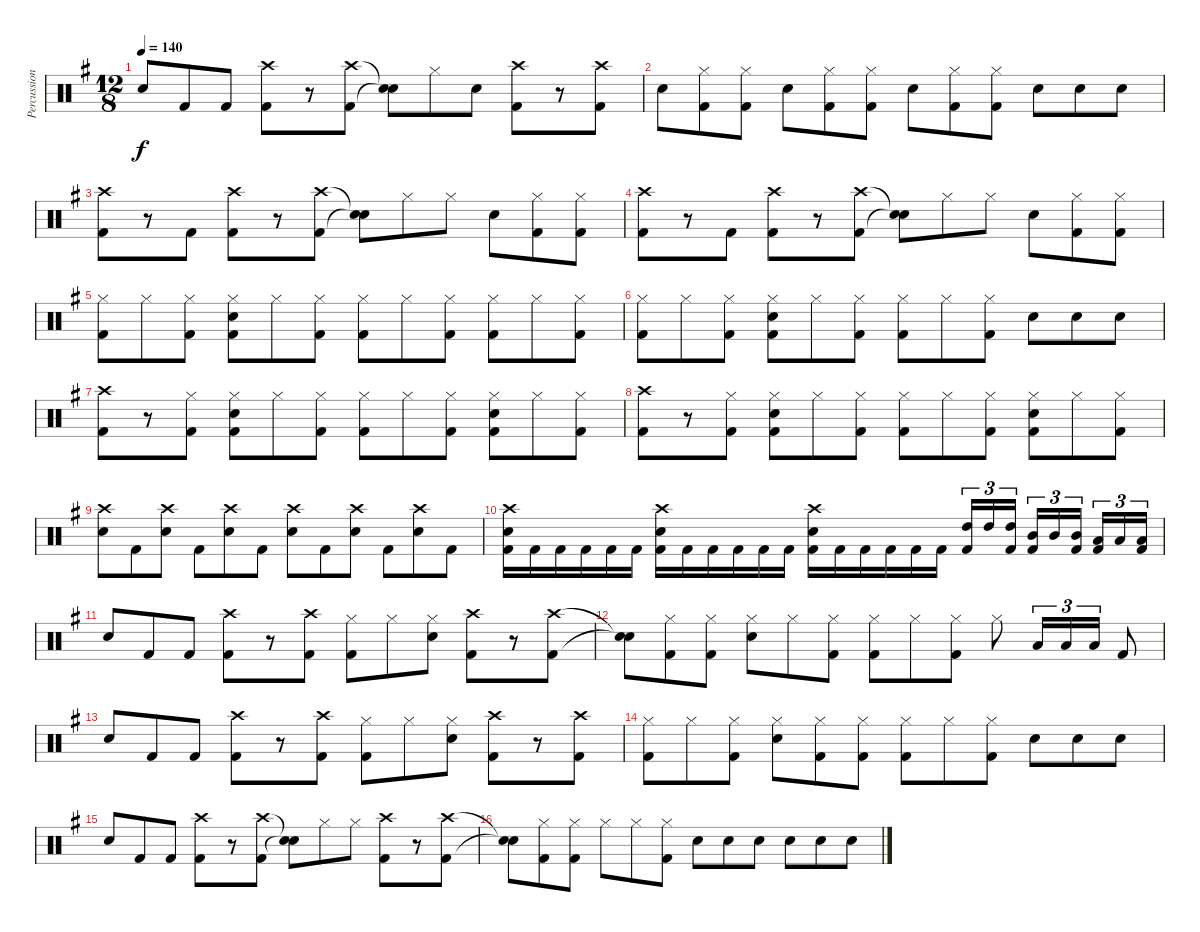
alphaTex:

\track ("Percussion" "Percussion") {instrument percussion}
\staff {score}
\articulation defaults
\ts (12 8)
\tempo 140
\clef neutral
\ks g "Snare (hit) 2".8{dy f} "Kick (hit) 2".8 "Kick (hit) 2".8
("Crash high (hit)" "Kick (hit) 2").8 r.8 ("Crash high (hit)" "Kick (hit) 2").8 ("Snare (hit)"{t} "Snare (hit)"{t}).8 "Hi-Hat (closed)".8 "Snare (hit) 2".8 ("Crash high (hit)" "Kick (hit) 2").8 r.8 ("Crash high (hit)" "Kick (hit) 2").8 |
"Snare (hit) 2".8 ("Hi-Hat (closed)" "Kick (hit) 2").8 ("Hi-Hat (closed)" "Kick (hit) 2").8 "Snare (hit) 2".8 ("Hi-Hat (closed)" "Kick (hit) 2").8 ("Hi-Hat (closed)" "Kick (hit) 2").8 "Snare (hit) 2".8 ("Hi-Hat (closed)" "Kick (hit) 2").8 ("Hi-Hat (closed)" "Kick (hit) 2").8 "Snare (hit) 2".8 "Snare (hit) 2".8 "Snare (hit) 2".8 |
("Crash high (hit)" "Kick (hit) 2").8 r.8 "Kick (hit) 2".8 ("Crash high (hit)" "Kick (hit) 2").8 r.8 ("Crash high (hit)" "Kick (hit) 2").8 ("Snare (hit)"{t} "Snare (hit)"{t}).8 "Hi-Hat (closed)".8 "Hi-Hat (closed)".8 "Snare (hit) 2".8 ("Hi-Hat (closed)" "Kick (hit) 2").8 ("Hi-Hat (closed)" "Kick (hit) 2").8 |
("Crash high (hit)" "Kick (hit) 2").8 r.8 "Kick (hit) 2".8 ("Crash high (hit)" "Kick (hit) 2").8 r.8 ("Crash high (hit)" "Kick (hit) 2").8 ("Snare (hit)"{t} "Snare (hit)"{t}).8 "Hi-Hat (closed)".8 "Hi-Hat (closed)".8 "Snare (hit) 2".8 ("Hi-Hat (closed)" "Kick (hit) 2").8 ("Hi-Hat (closed)" "Kick (hit) 2").8 |
("Hi-Hat (closed)" "Kick (hit) 2").8 "Hi-Hat (closed)".8 ("Hi-Hat (closed)" "Kick (hit) 2").8 ("Hi-Hat (closed)" "Snare (hit) 2" "Kick (hit) 2").8 "Hi-Hat (closed)".8 ("Hi-Hat (closed)" "Kick (hit) 2").8 ("Hi-Hat (closed)" "Kick (hit) 2").8 "Hi-Hat (closed)".8 ("Hi-Hat (closed)" "Kick (hit) 2").8 ("Hi-Hat (closed)" "Kick (hit) 2").8 "Hi-Hat (closed)".8 ("Hi-Hat (closed)" "Kick (hit) 2").8 |
("Hi-Hat (closed)" "Kick (hit) 2").8 "Hi-Hat (closed)".8 ("Hi-Hat (closed)" "Kick (hit) 2").8 ("Hi-Hat (closed)" "Snare (hit) 2" "Kick (hit) 2").8 "Hi-Hat (closed)".8 ("Hi-Hat (closed)" "Kick (hit) 2").8 ("Hi-Hat (closed)" "Kick (hit) 2").8 "Hi-Hat (closed)".8 ("Hi-Hat (closed)" "Kick (hit) 2").8 "Snare (hit) 2".8 "Snare (hit) 2".8 "Snare (hit) 2".8 |
("Crash high (hit)" "Kick (hit) 2").8 r.8 ("Hi-Hat (closed)" "Kick (hit) 2").8 ("Hi-Hat (closed)" "Snare (hit) 2" "Kick (hit) 2").8 "Hi-Hat (closed)".8 ("Hi-Hat (closed)" "Kick (hit) 2").8 ("Hi-Hat (closed)" "Kick (hit) 2").8 "Hi-Hat (closed)".8 ("Hi-Hat (closed)" "Kick (hit) 2").8 ("Hi-Hat (closed)" "Snare (hit) 2" "Kick (hit) 2").8 "Hi-Hat (closed)".8 ("Hi-Hat (closed)" "Kick (hit) 2").8 |
("Crash high (hit)" "Kick (hit) 2").8 r.8 ("Hi-Hat (closed)" "Kick (hit) 2").8 ("Hi-Hat (closed)" "Snare (hit) 2" "Kick (hit) 2").8 "Hi-Hat (closed)".8 ("Hi-Hat (closed)" "Kick (hit) 2").8 ("Hi-Hat (closed)" "Kick (hit) 2").8 "Hi-Hat (closed)".8 ("Hi-Hat (closed)" "Kick (hit) 2").8 ("Hi-Hat (closed)" "Snare (hit) 2" "Kick (hit) 2").8 "Hi-Hat (closed)".8 ("Hi-Hat (closed)" "Kick (hit) 2").8 |
("Crash high (hit)" "Snare (hit) 2").8 "Kick (hit) 2".8 ("Crash high (hit)" "Snare (hit) 2").8 "Kick (hit) 2".8 ("Crash high (hit)" "Snare (hit) 2").8 "Kick (hit) 2".8 ("Crash high (hit)" "Snare (hit) 2").8 "Kick (hit) 2".8 ("Crash high (hit)" "Snare (hit) 2").8 "Kick (hit) 2".8 ("Crash high (hit)" "Snare (hit) 2").8 "Kick (hit) 2".8 |
("Crash high (hit)" "Snare (hit) 2" "Kick (hit) 2").16 "Kick (hit) 2".16 "Kick (hit) 2".16 "Kick (hit) 2".16 "Kick (hit) 2".16 "Kick (hit) 2".16 ("Crash high (hit)" "Snare (hit) 2" "Kick (hit) 2").16 "Kick (hit) 2".16 "Kick (hit) 2".16 "Kick (hit) 2".16 "Kick (hit) 2".16 "Kick (hit) 2".16 ("Crash high (hit)" "Snare (hit) 2" "Kick (hit) 2").16 "Kick (hit) 2".16 "Kick (hit) 2".16 "Kick (hit) 2".16 "Kick (hit) 2".16 "Kick (hit) 2".16 ("High Tom (hit)" "Kick (hit) 2").16{tu (3 2)} "High Tom (hit)".16{tu (3 2)} ("High Tom (hit)" "Kick (hit) 2").16{tu (3 2) beam splitsecondary} ("Mid Tom (hit)" "Kick (hit) 2").16{tu (3 2)} "Mid Tom (hit)".16{tu (3 2)} ("Mid Tom (hit)" "Kick (hit) 2").16{tu (3 2) beam splitsecondary} ("Low Tom (hit)" "Kick (hit) 2").16{tu (3 2)} "Low Tom (hit)".16{tu (3 2)} ("Low Tom (hit)" "Kick (hit) 2").16{tu (3 2)} |
"Snare (hit) 2".8 "Kick (hit) 2".8 "Kick (hit) 2".8 ("Crash high (hit)" "Kick (hit) 2").8 r.8 ("Crash high (hit)" "Kick (hit) 2").8 ("Hi-Hat (closed)" "Kick (hit) 2").8 "Hi-Hat (closed)".8 ("Hi-Hat (closed)" "Snare (hit) 2").8 ("Crash high (hit)" "Kick (hit) 2").8 r.8 ("Crash high (hit)" "Kick (hit) 2").8 |
("Snare (hit)"{t} "Snare (hit)"{t}).8 ("Hi-Hat (closed)" "Kick (hit) 2").8 ("Hi-Hat (closed)" "Kick (hit) 2").8 ("Hi-Hat (closed)" "Snare (hit) 2").8 "Hi-Hat (closed)".8 ("Hi-Hat (closed)" "Kick (hit) 2").8 ("Hi-Hat (closed)" "Kick (hit) 2").8 "Hi-Hat (closed)".8 ("Hi-Hat (closed)" "Kick (hit) 2").8 "Hi-Hat (closed)".8 "Low Tom (hit)".16{tu (3 2)} "Low Tom (hit)".16{tu (3 2)} "Low Tom (hit)".16{tu (3 2)} "Kick (hit) 2".8 |
"Snare (hit) 2".8 "Kick (hit) 2".8 "Kick (hit) 2".8 ("Crash high (hit)" "Kick (hit) 2").8 r.8 ("Crash high (hit)" "Kick (hit) 2").8 ("Hi-Hat (closed)" "Kick (hit) 2").8 "Hi-Hat (closed)".8 ("Hi-Hat (closed)" "Snare (hit) 2").8 ("Crash high (hit)" "Kick (hit) 2").8 r.8 ("Crash high (hit)" "Kick (hit) 2").8 |
("Hi-Hat (closed)" "Kick (hit) 2").8 "Hi-Hat (closed)".8 ("Hi-Hat (closed)" "Kick (hit) 2").8 ("Hi-Hat (closed)" "Snare (hit) 2").8 ("Hi-Hat (closed)" "Kick (hit) 2").8 ("Hi-Hat (closed)" "Kick (hit) 2").8 ("Hi-Hat (closed)" "Kick (hit) 2").8 "Hi-Hat (closed)".8 ("Hi-Hat (closed)" "Kick (hit) 2").8 "Snare (hit) 2".8 "Snare (hit) 2".8 "Snare (hit) 2".8 |
"Snare (hit) 2".8 "Kick (hit) 2".8 "Kick (hit) 2".8 ("Crash high (hit)" "Kick (hit) 2").8 r.8 ("Crash high (hit)" "Kick (hit) 2").8 ("Snare (hit)"{t} "Snare (hit)"{t}).8 "Hi-Hat (closed)".8 "Hi-Hat (closed)".8 ("Crash high (hit)" "Kick (hit) 2").8 r.8 ("Crash high (hit)" "Kick (hit) 2").8 |
("Snare (hit)"{t} "Snare (hit)"{t}).8 ("Hi-Hat (closed)" "Kick (hit) 2").8 ("Hi-Hat (closed)" "Kick (hit) 2").8 "Hi-Hat (closed)".8 "Hi-Hat (closed)".8 ("Hi-Hat (closed)" "Kick (hit) 2").8 "Snare (hit) 2".8 "Snare (hit) 2".8 "Snare (hit) 2".8 "Snare (hit) 2".8 "Snare (hit) 2".8 "Snare (hit) 2".8
